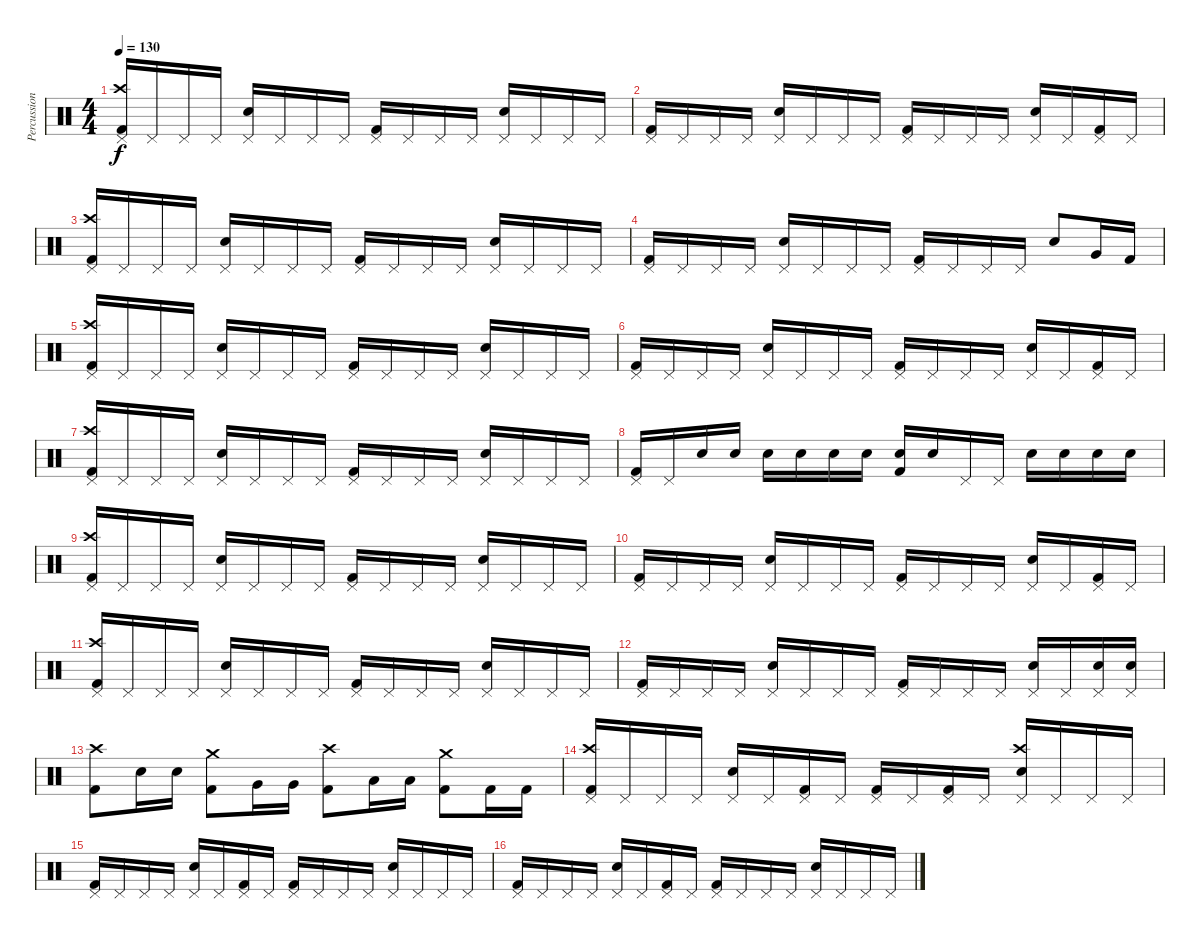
\track ("Percussion" "Percussion") {instrument percussion}
\staff {score}
\articulation defaults
\ts (4 4)
\tempo 130
\clef neutral
\ks c
("Pedal Hi-Hat (hit)" "Crash high (hit)" "Kick (hit) 2").16{dy f} "Pedal Hi-Hat (hit)".16 "Pedal Hi-Hat (hit)".16 "Pedal Hi-Hat (hit)".16 ("Pedal Hi-Hat (hit)" "Snare (hit) 2").16 "Pedal Hi-Hat (hit)".16 "Pedal Hi-Hat (hit)".16 "Pedal Hi-Hat (hit)".16 ("Pedal Hi-Hat (hit)" "Kick (hit) 2").16 "Pedal Hi-Hat (hit)".16 "Pedal Hi-Hat (hit)".16 "Pedal Hi-Hat (hit)".16 ("Pedal Hi-Hat (hit)" "Snare (hit) 2").16 "Pedal Hi-Hat (hit)".16 "Pedal Hi-Hat (hit)".16 "Pedal Hi-Hat (hit)".16 |
("Pedal Hi-Hat (hit)" "Kick (hit) 2").16 "Pedal Hi-Hat (hit)".16 "Pedal Hi-Hat (hit)".16 "Pedal Hi-Hat (hit)".16 ("Pedal Hi-Hat (hit)" "Snare (hit) 2").16 "Pedal Hi-Hat (hit)".16 "Pedal Hi-Hat (hit)".16 "Pedal Hi-Hat (hit)".16 ("Pedal Hi-Hat (hit)" "Kick (hit) 2").16 "Pedal Hi-Hat (hit)".16 "Pedal Hi-Hat (hit)".16 "Pedal Hi-Hat (hit)".16 ("Pedal Hi-Hat (hit)" "Snare (hit) 2").16 "Pedal Hi-Hat (hit)".16 ("Pedal Hi-Hat (hit)" "Kick (hit) 2").16 "Pedal Hi-Hat (hit)".16 |
("Pedal Hi-Hat (hit)" "Crash high (hit)" "Kick (hit) 2").16 "Pedal Hi-Hat (hit)".16 "Pedal Hi-Hat (hit)".16 "Pedal Hi-Hat (hit)".16 ("Pedal Hi-Hat (hit)" "Snare (hit) 2").16 "Pedal Hi-Hat (hit)".16 "Pedal Hi-Hat (hit)".16 "Pedal Hi-Hat (hit)".16 ("Pedal Hi-Hat (hit)" "Kick (hit) 2").16 "Pedal Hi-Hat (hit)".16 "Pedal Hi-Hat (hit)".16 "Pedal Hi-Hat (hit)".16 ("Pedal Hi-Hat (hit)" "Snare (hit) 2").16 "Pedal Hi-Hat (hit)".16 "Pedal Hi-Hat (hit)".16 "Pedal Hi-Hat (hit)".16 |
("Pedal Hi-Hat (hit)" "Kick (hit) 2").16 "Pedal Hi-Hat (hit)".16 "Pedal Hi-Hat (hit)".16 "Pedal Hi-Hat (hit)".16 ("Pedal Hi-Hat (hit)" "Snare (hit) 2").16 "Pedal Hi-Hat (hit)".16 "Pedal Hi-Hat (hit)".16 "Pedal Hi-Hat (hit)".16 ("Pedal Hi-Hat (hit)" "Kick (hit) 2").16 "Pedal Hi-Hat (hit)".16 "Pedal Hi-Hat (hit)".16 "Pedal Hi-Hat (hit)".16 "Snare (hit) 2".8 "Very Low Tom (hit)".16 "Kick (hit) 2".16 |
("Pedal Hi-Hat (hit)" "Crash high (hit)" "Kick (hit) 2").16 "Pedal Hi-Hat (hit)".16 "Pedal Hi-Hat (hit)".16 "Pedal Hi-Hat (hit)".16 ("Pedal Hi-Hat (hit)" "Snare (hit) 2").16 "Pedal Hi-Hat (hit)".16 "Pedal Hi-Hat (hit)".16 "Pedal Hi-Hat (hit)".16 ("Pedal Hi-Hat (hit)" "Kick (hit) 2").16 "Pedal Hi-Hat (hit)".16 "Pedal Hi-Hat (hit)".16 "Pedal Hi-Hat (hit)".16 ("Pedal Hi-Hat (hit)" "Snare (hit) 2").16 "Pedal Hi-Hat (hit)".16 "Pedal Hi-Hat (hit)".16 "Pedal Hi-Hat (hit)".16 |
("Pedal Hi-Hat (hit)" "Kick (hit) 2").16 "Pedal Hi-Hat (hit)".16 "Pedal Hi-Hat (hit)".16 "Pedal Hi-Hat (hit)".16 ("Pedal Hi-Hat (hit)" "Snare (hit) 2").16 "Pedal Hi-Hat (hit)".16 "Pedal Hi-Hat (hit)".16 "Pedal Hi-Hat (hit)".16 ("Pedal Hi-Hat (hit)" "Kick (hit) 2").16 "Pedal Hi-Hat (hit)".16 "Pedal Hi-Hat (hit)".16 "Pedal Hi-Hat (hit)".16 ("Pedal Hi-Hat (hit)" "Snare (hit) 2").16 "Pedal Hi-Hat (hit)".16 ("Pedal Hi-Hat (hit)" "Kick (hit) 2").16 "Pedal Hi-Hat (hit)".16 |
("Pedal Hi-Hat (hit)" "Crash high (hit)" "Kick (hit) 2").16 "Pedal Hi-Hat (hit)".16 "Pedal Hi-Hat (hit)".16 "Pedal Hi-Hat (hit)".16 ("Pedal Hi-Hat (hit)" "Snare (hit) 2").16 "Pedal Hi-Hat (hit)".16 "Pedal Hi-Hat (hit)".16 "Pedal Hi-Hat (hit)".16 ("Pedal Hi-Hat (hit)" "Kick (hit) 2").16 "Pedal Hi-Hat (hit)".16 "Pedal Hi-Hat (hit)".16 "Pedal Hi-Hat (hit)".16 ("Pedal Hi-Hat (hit)" "Snare (hit) 2").16 "Pedal Hi-Hat (hit)".16 "Pedal Hi-Hat (hit)".16 "Pedal Hi-Hat (hit)".16 |
("Pedal Hi-Hat (hit)" "Kick (hit) 2").16 "Pedal Hi-Hat (hit)".16 "Snare (hit) 2".16 "Snare (hit) 2".16 "Snare (hit) 2".16 "Snare (hit) 2".16 "Snare (hit) 2".16 "Snare (hit) 2".16 ("Snare (hit) 2" "Kick (hit) 2").16 "Snare (hit) 2".16 "Pedal Hi-Hat (hit)".16 "Pedal Hi-Hat (hit)".16 "Snare (hit) 2".16 "Snare (hit) 2".16 "Snare (hit) 2".16 "Snare (hit) 2".16 |
("Pedal Hi-Hat (hit)" "Crash high (hit)" "Kick (hit) 2").16 "Pedal Hi-Hat (hit)".16 "Pedal Hi-Hat (hit)".16 "Pedal Hi-Hat (hit)".16 ("Pedal Hi-Hat (hit)" "Snare (hit) 2").16 "Pedal Hi-Hat (hit)".16 "Pedal Hi-Hat (hit)".16 "Pedal Hi-Hat (hit)".16 ("Pedal Hi-Hat (hit)" "Kick (hit) 2").16 "Pedal Hi-Hat (hit)".16 "Pedal Hi-Hat (hit)".16 "Pedal Hi-Hat (hit)".16 ("Pedal Hi-Hat (hit)" "Snare (hit) 2").16 "Pedal Hi-Hat (hit)".16 "Pedal Hi-Hat (hit)".16 "Pedal Hi-Hat (hit)".16 |
("Pedal Hi-Hat (hit)" "Kick (hit) 2").16 "Pedal Hi-Hat (hit)".16 "Pedal Hi-Hat (hit)".16 "Pedal Hi-Hat (hit)".16 ("Pedal Hi-Hat (hit)" "Snare (hit) 2").16 "Pedal Hi-Hat (hit)".16 "Pedal Hi-Hat (hit)".16 "Pedal Hi-Hat (hit)".16 ("Pedal Hi-Hat (hit)" "Kick (hit) 2").16 "Pedal Hi-Hat (hit)".16 "Pedal Hi-Hat (hit)".16 "Pedal Hi-Hat (hit)".16 ("Pedal Hi-Hat (hit)" "Snare (hit) 2").16 "Pedal Hi-Hat (hit)".16 ("Pedal Hi-Hat (hit)" "Kick (hit) 2").16 "Pedal Hi-Hat (hit)".16 |
("Pedal Hi-Hat (hit)" "Crash high (hit)" "Kick (hit) 2").16 "Pedal Hi-Hat (hit)".16 "Pedal Hi-Hat (hit)".16 "Pedal Hi-Hat (hit)".16 ("Pedal Hi-Hat (hit)" "Snare (hit) 2").16 "Pedal Hi-Hat (hit)".16 "Pedal Hi-Hat (hit)".16 "Pedal Hi-Hat (hit)".16 ("Pedal Hi-Hat (hit)" "Kick (hit) 2").16 "Pedal Hi-Hat (hit)".16 "Pedal Hi-Hat (hit)".16 "Pedal Hi-Hat (hit)".16 ("Pedal Hi-Hat (hit)" "Snare (hit) 2").16 "Pedal Hi-Hat (hit)".16 "Pedal Hi-Hat (hit)".16 "Pedal Hi-Hat (hit)".16 |
("Pedal Hi-Hat (hit)" "Kick (hit) 2").16 "Pedal Hi-Hat (hit)".16 "Pedal Hi-Hat (hit)".16 "Pedal Hi-Hat (hit)".16 ("Pedal Hi-Hat (hit)" "Snare (hit) 2").16 "Pedal Hi-Hat (hit)".16 "Pedal Hi-Hat (hit)".16 "Pedal Hi-Hat (hit)".16 ("Pedal Hi-Hat (hit)" "Kick (hit) 2").16 "Pedal Hi-Hat (hit)".16 "Pedal Hi-Hat (hit)".16 "Pedal Hi-Hat (hit)".16 ("Pedal Hi-Hat (hit)" "Snare (hit) 2").16 "Pedal Hi-Hat (hit)".16 ("Pedal Hi-Hat (hit)" "Snare (hit) 2").16 ("Pedal Hi-Hat (hit)" "Snare (hit) 2").16 |
("Crash high (hit)" "Kick (hit) 2").8 "Snare (hit) 2".16 "Snare (hit) 2".16 ("Crash medium (hit)" "Kick (hit) 2").8 "Very Low Tom (hit)".16 "Very Low Tom (hit)".16 ("Crash high (hit)" "Kick (hit) 2").8 "Low Floor Tom (hit)".16 "Low Floor Tom (hit)".16 ("Crash medium (hit)" "Kick (hit) 2").8 "Kick (hit) 2".16 "Kick (hit) 2".16 |
("Pedal Hi-Hat (hit)" "Crash high (hit)" "Kick (hit) 2").16 "Pedal Hi-Hat (hit)".16 "Pedal Hi-Hat (hit)".16 "Pedal Hi-Hat (hit)".16 ("Pedal Hi-Hat (hit)" "Snare (hit) 2").16 "Pedal Hi-Hat (hit)".16 ("Pedal Hi-Hat (hit)" "Kick (hit) 2").16 "Pedal Hi-Hat (hit)".16 ("Pedal Hi-Hat (hit)" "Kick (hit) 2").16 "Pedal Hi-Hat (hit)".16 ("Pedal Hi-Hat (hit)" "Kick (hit) 2").16 "Pedal Hi-Hat (hit)".16 ("Pedal Hi-Hat (hit)" "Crash high (hit)" "Snare (hit) 2").16 "Pedal Hi-Hat (hit)".16 "Pedal Hi-Hat (hit)".16 "Pedal Hi-Hat (hit)".16 |
("Pedal Hi-Hat (hit)" "Kick (hit) 2").16 "Pedal Hi-Hat (hit)".16 "Pedal Hi-Hat (hit)".16 "Pedal Hi-Hat (hit)".16 ("Pedal Hi-Hat (hit)" "Snare (hit) 2").16 "Pedal Hi-Hat (hit)".16 ("Pedal Hi-Hat (hit)" "Kick (hit) 2").16 "Pedal Hi-Hat (hit)".16 ("Pedal Hi-Hat (hit)" "Kick (hit) 2").16 "Pedal Hi-Hat (hit)".16 "Pedal Hi-Hat (hit)".16 "Pedal Hi-Hat (hit)".16 ("Pedal Hi-Hat (hit)" "Snare (hit) 2").16 "Pedal Hi-Hat (hit)".16 "Pedal Hi-Hat (hit)".16 "Pedal Hi-Hat (hit)".16 |
("Pedal Hi-Hat (hit)" "Kick (hit) 2").16 "Pedal Hi-Hat (hit)".16 "Pedal Hi-Hat (hit)".16 "Pedal Hi-Hat (hit)".16 ("Pedal Hi-Hat (hit)" "Snare (hit) 2").16 "Pedal Hi-Hat (hit)".16 ("Pedal Hi-Hat (hit)" "Kick (hit) 2").16 "Pedal Hi-Hat (hit)".16 ("Pedal Hi-Hat (hit)" "Kick (hit) 2").16 "Pedal Hi-Hat (hit)".16 "Pedal Hi-Hat (hit)".16 "Pedal Hi-Hat (hit)".16 ("Pedal Hi-Hat (hit)" "Snare (hit) 2").16 "Pedal Hi-Hat (hit)".16 "Pedal Hi-Hat (hit)".16 "Pedal Hi-Hat (hit)".16
